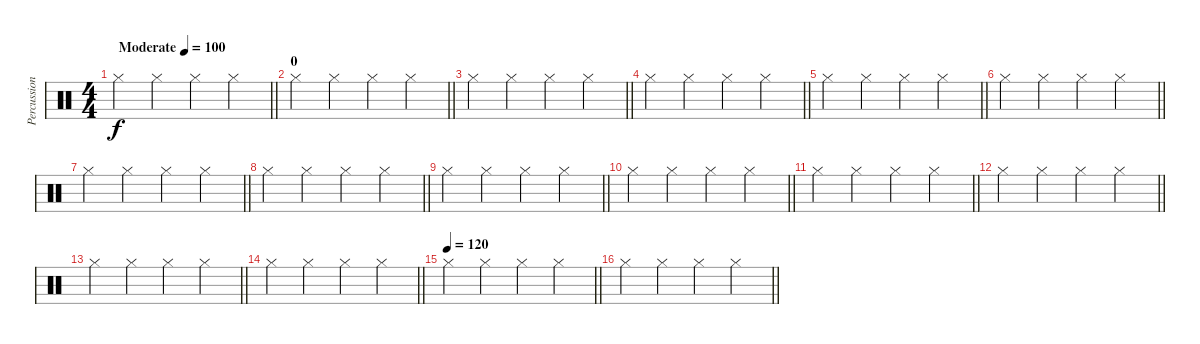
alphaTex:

\track ("Percussion" "Percussion") {instrument percussion}
\staff {score}
\articulation defaults
\ts (4 4)
\tempo (100 "Moderate")
\clef neutral
\barLineRight lightlight
\ks c "Hi-Hat (closed)".4{dy f} "Hi-Hat (closed)".4 "Hi-Hat (closed)".4 "Hi-Hat (closed)".4
|
\section ("" "0")
\barLineRight lightlight "Hi-Hat (closed)".4 "Hi-Hat (closed)".4 "Hi-Hat (closed)".4 "Hi-Hat (closed)".4
|
\barLineRight lightlight "Hi-Hat (closed)".4 "Hi-Hat (closed)".4 "Hi-Hat (closed)".4 "Hi-Hat (closed)".4
|
\barLineRight lightlight "Hi-Hat (closed)".4 "Hi-Hat (closed)".4 "Hi-Hat (closed)".4 "Hi-Hat (closed)".4
|
\barLineRight lightlight "Hi-Hat (closed)".4 "Hi-Hat (closed)".4 "Hi-Hat (closed)".4 "Hi-Hat (closed)".4
|
\barLineRight lightlight "Hi-Hat (closed)".4 "Hi-Hat (closed)".4 "Hi-Hat (closed)".4 "Hi-Hat (closed)".4
|
\barLineRight lightlight "Hi-Hat (closed)".4 "Hi-Hat (closed)".4 "Hi-Hat (closed)".4 "Hi-Hat (closed)".4
|
\barLineRight lightlight "Hi-Hat (closed)".4 "Hi-Hat (closed)".4 "Hi-Hat (closed)".4 "Hi-Hat (closed)".4
|
\barLineRight lightlight "Hi-Hat (closed)".4 "Hi-Hat (closed)".4 "Hi-Hat (closed)".4 "Hi-Hat (closed)".4
|
\barLineRight lightlight "Hi-Hat (closed)".4 "Hi-Hat (closed)".4 "Hi-Hat (closed)".4 "Hi-Hat (closed)".4
|
\barLineRight lightlight "Hi-Hat (closed)".4 "Hi-Hat (closed)".4 "Hi-Hat (closed)".4 "Hi-Hat (closed)".4
|
\barLineRight lightlight "Hi-Hat (closed)".4 "Hi-Hat (closed)".4 "Hi-Hat (closed)".4 "Hi-Hat (closed)".4
|
\barLineRight lightlight "Hi-Hat (closed)".4 "Hi-Hat (closed)".4 "Hi-Hat (closed)".4 "Hi-Hat (closed)".4
|
\barLineRight lightlight "Hi-Hat (closed)".4 "Hi-Hat (closed)".4 "Hi-Hat (closed)".4 "Hi-Hat (closed)".4
|
\tempo 120
\barLineRight lightlight "Hi-Hat (closed)".4 "Hi-Hat (closed)".4 "Hi-Hat (closed)".4 "Hi-Hat (closed)".4
|
\barLineRight lightlight "Hi-Hat (closed)".4 "Hi-Hat (closed)".4 "Hi-Hat (closed)".4 "Hi-Hat (closed)".4
